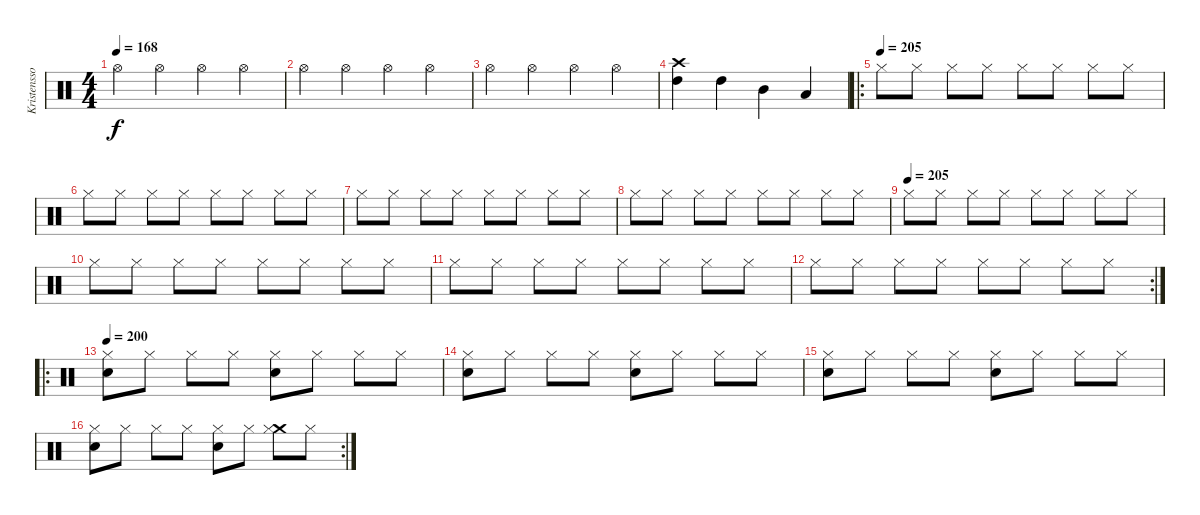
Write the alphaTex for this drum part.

\track ("Kristensson" "Kristensso") {instrument percussion}
\staff {score}
\articulation defaults
\ts (4 4)
\tempo 168
\clef neutral
\ks c "Hi-Hat (open)".4{dy f} "Hi-Hat (open)".4 "Hi-Hat (open)".4 "Hi-Hat (open)".4
|
"Hi-Hat (open)".4 "Hi-Hat (open)".4 "Hi-Hat (open)".4 "Hi-Hat (open)".4 |
"Hi-Hat (open)".4 "Hi-Hat (open)".4 "Hi-Hat (open)".4 "Hi-Hat (open)".4 |
("Crash high (hit)" "High Tom (hit)").4 "High Tom (hit)".4 "Mid Tom (hit)".4 "Low Tom (hit)".4 |
\ro
\tempo (205)
"Hi-Hat (closed)".8 "Hi-Hat (closed)".8 "Hi-Hat (closed)".8 "Hi-Hat (closed)".8 "Hi-Hat (closed)".8 "Hi-Hat (closed)".8 "Hi-Hat (closed)".8 "Hi-Hat (closed)".8 |
"Hi-Hat (closed)".8 "Hi-Hat (closed)".8 "Hi-Hat (closed)".8 "Hi-Hat (closed)".8 "Hi-Hat (closed)".8 "Hi-Hat (closed)".8 "Hi-Hat (closed)".8 "Hi-Hat (closed)".8 |
"Hi-Hat (closed)".8 "Hi-Hat (closed)".8 "Hi-Hat (closed)".8 "Hi-Hat (closed)".8 "Hi-Hat (closed)".8 "Hi-Hat (closed)".8 "Hi-Hat (closed)".8 "Hi-Hat (closed)".8 |
"Hi-Hat (closed)".8 "Hi-Hat (closed)".8 "Hi-Hat (closed)".8 "Hi-Hat (closed)".8 "Hi-Hat (closed)".8 "Hi-Hat (closed)".8 "Hi-Hat (closed)".8 "Hi-Hat (closed)".8 |
\tempo (205)
"Hi-Hat (closed)".8 "Hi-Hat (closed)".8 "Hi-Hat (closed)".8 "Hi-Hat (closed)".8 "Hi-Hat (closed)".8 "Hi-Hat (closed)".8 "Hi-Hat (closed)".8 "Hi-Hat (closed)".8 |
"Hi-Hat (closed)".8 "Hi-Hat (closed)".8 "Hi-Hat (closed)".8 "Hi-Hat (closed)".8 "Hi-Hat (closed)".8 "Hi-Hat (closed)".8 "Hi-Hat (closed)".8 "Hi-Hat (closed)".8 |
"Hi-Hat (closed)".8 "Hi-Hat (closed)".8 "Hi-Hat (closed)".8 "Hi-Hat (closed)".8 "Hi-Hat (closed)".8 "Hi-Hat (closed)".8 "Hi-Hat (closed)".8 "Hi-Hat (closed)".8 |
\rc 2 "Hi-Hat (closed)".8 "Hi-Hat (closed)".8 "Hi-Hat (closed)".8 "Hi-Hat (closed)".8 "Hi-Hat (closed)".8 "Hi-Hat (closed)".8 "Hi-Hat (closed)".8 "Hi-Hat (closed)".8
|
\ro
\tempo 200
("Snare (hit) 2" "Hi-Hat (closed)").8 "Hi-Hat (closed)".8 "Hi-Hat (closed)".8 "Hi-Hat (closed)".8 ("Snare (hit) 2" "Hi-Hat (closed)").8 "Hi-Hat (closed)".8 "Hi-Hat (closed)".8 "Hi-Hat (closed)".8 |
("Snare (hit) 2" "Hi-Hat (closed)").8 "Hi-Hat (closed)".8 "Hi-Hat (closed)".8 "Hi-Hat (closed)".8 ("Snare (hit) 2" "Hi-Hat (closed)").8 "Hi-Hat (closed)".8 "Hi-Hat (closed)".8 "Hi-Hat (closed)".8 |
("Snare (hit) 2" "Hi-Hat (closed)").8 "Hi-Hat (closed)".8 "Hi-Hat (closed)".8 "Hi-Hat (closed)".8 ("Snare (hit) 2" "Hi-Hat (closed)").8 "Hi-Hat (closed)".8 "Hi-Hat (closed)".8 "Hi-Hat (closed)".8 |
\rc 2
("Snare (hit) 2" "Hi-Hat (closed)").8 "Hi-Hat (closed)".8 "Hi-Hat (closed)".8 "Hi-Hat (closed)".8 ("Snare (hit) 2" "Hi-Hat (closed)").8 "Hi-Hat (closed)".8 ("Crash medium (hit)" "Hi-Hat (closed)").8 "Hi-Hat (closed)".8
